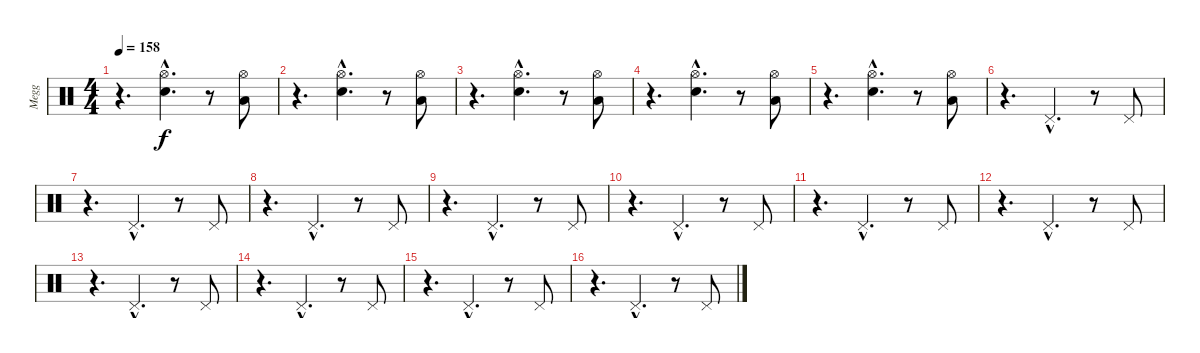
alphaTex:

\track ("Megg" "Megg") {instrument percussion}
\staff {score}
\articulation defaults
\ts (4 4)
\tempo 158
\clef neutral
\ks c
r.4{d dy f} ("Electric Snare (hit)"{hac} "Hi-Hat (open)"{hac}).4{d} r.8 ("Low Tom (hit)" "Hi-Hat (open)").8 |
r.4{d} ("Electric Snare (hit)"{hac} "Hi-Hat (open)"{hac}).4{d} r.8 ("Low Tom (hit)" "Hi-Hat (open)").8 |
r.4{d} ("Electric Snare (hit)"{hac} "Hi-Hat (open)"{hac}).4{d} r.8 ("Low Tom (hit)" "Hi-Hat (open)").8 |
r.4{d} ("Electric Snare (hit)"{hac} "Hi-Hat (open)"{hac}).4{d} r.8 ("Low Tom (hit)" "Hi-Hat (open)").8 |
r.4{d} ("Electric Snare (hit)"{hac} "Hi-Hat (open)"{hac}).4{d} r.8 ("Low Tom (hit)" "Hi-Hat (open)").8 |
r.4{d} "Pedal Hi-Hat (hit)"{hac}.4{d} r.8 "Pedal Hi-Hat (hit)".8 |
r.4{d} "Pedal Hi-Hat (hit)"{hac}.4{d} r.8 "Pedal Hi-Hat (hit)".8 |
r.4{d} "Pedal Hi-Hat (hit)"{hac}.4{d} r.8 "Pedal Hi-Hat (hit)".8 |
r.4{d} "Pedal Hi-Hat (hit)"{hac}.4{d} r.8 "Pedal Hi-Hat (hit)".8 |
r.4{d} "Pedal Hi-Hat (hit)"{hac}.4{d} r.8 "Pedal Hi-Hat (hit)".8 |
r.4{d} "Pedal Hi-Hat (hit)"{hac}.4{d} r.8 "Pedal Hi-Hat (hit)".8 |
r.4{d} "Pedal Hi-Hat (hit)"{hac}.4{d} r.8 "Pedal Hi-Hat (hit)".8 |
r.4{d} "Pedal Hi-Hat (hit)"{hac}.4{d} r.8 "Pedal Hi-Hat (hit)".8 |
r.4{d} "Pedal Hi-Hat (hit)"{hac}.4{d} r.8 "Pedal Hi-Hat (hit)".8 |
r.4{d} "Pedal Hi-Hat (hit)"{hac}.4{d} r.8 "Pedal Hi-Hat (hit)".8 |
r.4{d} "Pedal Hi-Hat (hit)"{hac}.4{d} r.8 "Pedal Hi-Hat (hit)".8
